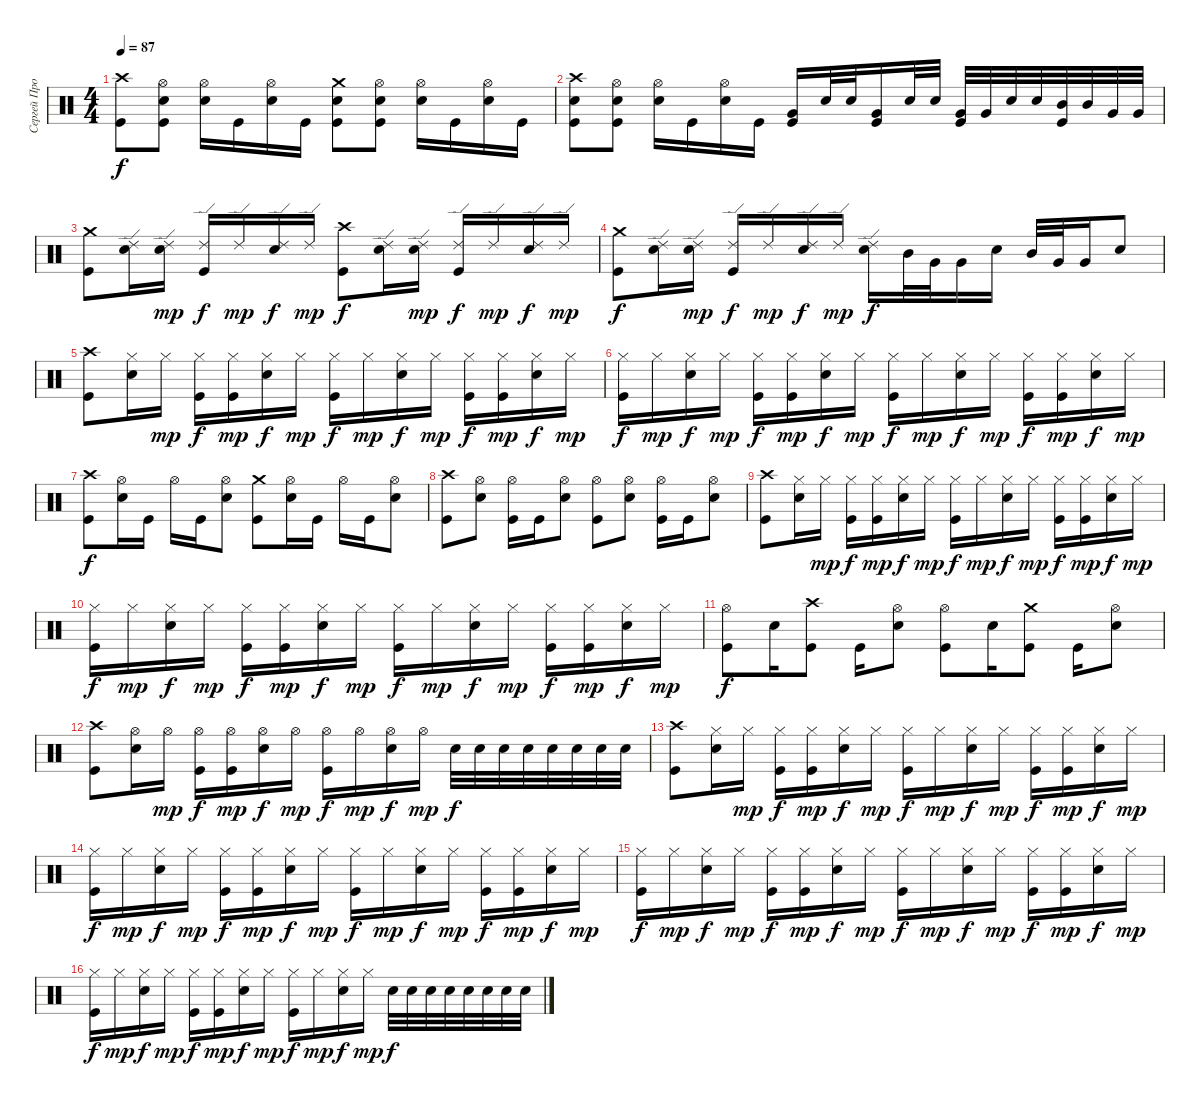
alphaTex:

\track ("Сергей Прокофьев" "Сергей Про") {instrument percussion}
\staff {score}
\articulation defaults
\ts (4 4)
\tempo 87
\clef neutral
\ks c
("Crash high (hit)" "Kick (hit)").8{dy f} ("Hi-Hat (open)" "Electric Snare (hit)" "Kick (hit)").8 ("Hi-Hat (open)" "Electric Snare (hit)").16 "Kick (hit)".16 ("Hi-Hat (open)" "Electric Snare (hit)").16 "Kick (hit)".16 ("Crash medium (hit)" "Electric Snare (hit)" "Kick (hit)").8 ("Hi-Hat (open)" "Electric Snare (hit)" "Kick (hit)").8 ("Hi-Hat (open)" "Electric Snare (hit)").16 "Kick (hit)".16 ("Hi-Hat (open)" "Electric Snare (hit)").16 "Kick (hit)".16 |
("Crash high (hit)" "Electric Snare (hit)" "Kick (hit)").8 ("Hi-Hat (open)" "Electric Snare (hit)" "Kick (hit)").8 ("Hi-Hat (open)" "Electric Snare (hit)").16 "Kick (hit)".16 ("Hi-Hat (open)" "Electric Snare (hit)").16 "Kick (hit)".16 ("Very Low Tom (hit)" "Kick (hit)").16 "Electric Snare (hit)".32 "Electric Snare (hit)".32 ("Very Low Tom (hit)" "Kick (hit)").16 "Electric Snare (hit)".32 "Electric Snare (hit)".32 ("Very Low Tom (hit)" "Kick (hit)").32 "Very Low Tom (hit)".32 "Electric Snare (hit)".32 "Electric Snare (hit)".32 ("Mid Tom (hit)" "Kick (hit)").32 "Mid Tom (hit)".32 "Very Low Tom (hit)".32 "Very Low Tom (hit)".32 |
("Crash medium (hit)" "Kick (hit)").8 ("Ride (edge) 2" "Electric Snare (hit)").16 ("Ride (edge) 2" "Electric Snare (hit)").16{dy mp} ("Ride (edge) 2" "Kick (hit)").16{dy f} "Ride (edge) 2".16{dy mp} ("Ride (edge) 2" "Electric Snare (hit)").16{dy f} "Ride (edge) 2".16{dy mp} ("Crash high (hit)" "Kick (hit)").8{dy f} ("Ride (edge) 2" "Electric Snare (hit)").16 ("Ride (edge) 2" "Electric Snare (hit)").16{dy mp} ("Ride (edge) 2" "Kick (hit)").16{dy f} "Ride (edge) 2".16{dy mp} ("Ride (edge) 2" "Electric Snare (hit)").16{dy f} "Ride (edge) 2".16{dy mp} |
("Crash medium (hit)" "Kick (hit)").8{dy f} ("Ride (edge) 2" "Electric Snare (hit)").16 ("Ride (edge) 2" "Electric Snare (hit)").16{dy mp} ("Ride (edge) 2" "Kick (hit)").16{dy f} "Ride (edge) 2".16{dy mp} ("Ride (edge) 2" "Electric Snare (hit)").16{dy f} "Ride (edge) 2".16{dy mp} ("Ride (edge) 2" "Electric Snare (hit)").16{dy f} "Mid Tom (hit)".32 "Very Low Tom (hit)".32 "Very Low Tom (hit)".16 "Electric Snare (hit)".16 "Mid Tom (hit)".32 "Very Low Tom (hit)".32 "Very Low Tom (hit)".16 "Electric Snare (hit)".8 |
("Crash high (hit)" "Kick (hit)").8 ("Hi-Hat (closed)" "Electric Snare (hit)").16 "Hi-Hat (closed)".16{dy mp} ("Hi-Hat (closed)" "Kick (hit)").16{dy f} ("Hi-Hat (closed)" "Kick (hit)").16{dy mp} ("Hi-Hat (closed)" "Electric Snare (hit)").16{dy f} "Hi-Hat (closed)".16{dy mp} ("Hi-Hat (closed)" "Kick (hit)").16{dy f} "Hi-Hat (closed)".16{dy mp} ("Hi-Hat (closed)" "Electric Snare (hit)").16{dy f} "Hi-Hat (closed)".16{dy mp} ("Hi-Hat (closed)" "Kick (hit)").16{dy f} ("Hi-Hat (closed)" "Kick (hit)").16{dy mp} ("Hi-Hat (closed)" "Electric Snare (hit)").16{dy f} "Hi-Hat (closed)".16{dy mp} |
("Hi-Hat (closed)" "Kick (hit)").16{dy f} "Hi-Hat (closed)".16{dy mp} ("Hi-Hat (closed)" "Electric Snare (hit)").16{dy f} "Hi-Hat (closed)".16{dy mp} ("Hi-Hat (closed)" "Kick (hit)").16{dy f} ("Hi-Hat (closed)" "Kick (hit)").16{dy mp} ("Hi-Hat (closed)" "Electric Snare (hit)").16{dy f} "Hi-Hat (closed)".16{dy mp} ("Hi-Hat (closed)" "Kick (hit)").16{dy f} "Hi-Hat (closed)".16{dy mp} ("Hi-Hat (closed)" "Electric Snare (hit)").16{dy f} "Hi-Hat (closed)".16{dy mp} ("Hi-Hat (closed)" "Kick (hit)").16{dy f} ("Hi-Hat (closed)" "Kick (hit)").16{dy mp} ("Hi-Hat (closed)" "Electric Snare (hit)").16{dy f} "Hi-Hat (closed)".16{dy mp} |
("Crash high (hit)" "Kick (hit)").8{dy f} ("Hi-Hat (open)" "Electric Snare (hit)").16 "Kick (hit)".16 "Hi-Hat (open)".16 "Kick (hit)".16 ("Hi-Hat (open)" "Electric Snare (hit)").8 ("Crash medium (hit)" "Kick (hit)").8 ("Hi-Hat (open)" "Electric Snare (hit)").16 "Kick (hit)".16 "Hi-Hat (open)".16 "Kick (hit)".16 ("Hi-Hat (open)" "Electric Snare (hit)").8 |
("Crash high (hit)" "Kick (hit)").8 ("Hi-Hat (open)" "Electric Snare (hit)").8 ("Hi-Hat (open)" "Kick (hit)").16 "Kick (hit)".16 ("Hi-Hat (open)" "Electric Snare (hit)").8 ("Hi-Hat (open)" "Kick (hit)").8 ("Hi-Hat (open)" "Electric Snare (hit)").8 ("Hi-Hat (open)" "Kick (hit)").16 "Kick (hit)".16 ("Hi-Hat (open)" "Electric Snare (hit)").8 |
("Crash high (hit)" "Kick (hit)").8 ("Hi-Hat (closed)" "Electric Snare (hit)").16 "Hi-Hat (closed)".16{dy mp} ("Hi-Hat (closed)" "Kick (hit)").16{dy f} ("Hi-Hat (closed)" "Kick (hit)").16{dy mp} ("Hi-Hat (closed)" "Electric Snare (hit)").16{dy f} "Hi-Hat (closed)".16{dy mp} ("Hi-Hat (closed)" "Kick (hit)").16{dy f} "Hi-Hat (closed)".16{dy mp} ("Hi-Hat (closed)" "Electric Snare (hit)").16{dy f} "Hi-Hat (closed)".16{dy mp} ("Hi-Hat (closed)" "Kick (hit)").16{dy f} ("Hi-Hat (closed)" "Kick (hit)").16{dy mp} ("Hi-Hat (closed)" "Electric Snare (hit)").16{dy f} "Hi-Hat (closed)".16{dy mp} |
("Hi-Hat (closed)" "Kick (hit)").16{dy f} "Hi-Hat (closed)".16{dy mp} ("Hi-Hat (closed)" "Electric Snare (hit)").16{dy f} "Hi-Hat (closed)".16{dy mp} ("Hi-Hat (closed)" "Kick (hit)").16{dy f} ("Hi-Hat (closed)" "Kick (hit)").16{dy mp} ("Hi-Hat (closed)" "Electric Snare (hit)").16{dy f} "Hi-Hat (closed)".16{dy mp} ("Hi-Hat (closed)" "Kick (hit)").16{dy f} "Hi-Hat (closed)".16{dy mp} ("Hi-Hat (closed)" "Electric Snare (hit)").16{dy f} "Hi-Hat (closed)".16{dy mp} ("Hi-Hat (closed)" "Kick (hit)").16{dy f} ("Hi-Hat (closed)" "Kick (hit)").16{dy mp} ("Hi-Hat (closed)" "Electric Snare (hit)").16{dy f} "Hi-Hat (closed)".16{dy mp} |
("Hi-Hat (open)" "Kick (hit)").8{dy f} "Electric Snare (hit)".16 ("Crash high (hit)" "Kick (hit)").8 "Kick (hit)".16 ("Hi-Hat (open)" "Electric Snare (hit)").8 ("Hi-Hat (open)" "Kick (hit)").8 "Electric Snare (hit)".16 ("Crash medium (hit)" "Kick (hit)").8 "Kick (hit)".16 ("Hi-Hat (open)" "Electric Snare (hit)").8 |
("Crash high (hit)" "Kick (hit)").8 ("Hi-Hat (open)" "Electric Snare (hit)").16 "Hi-Hat (open)".16{dy mp} ("Hi-Hat (open)" "Kick (hit)").16{dy f} ("Hi-Hat (open)" "Kick (hit)").16{dy mp} ("Hi-Hat (open)" "Electric Snare (hit)").16{dy f} "Hi-Hat (open)".16{dy mp} ("Hi-Hat (open)" "Kick (hit)").16{dy f} "Hi-Hat (open)".16{dy mp} ("Hi-Hat (open)" "Electric Snare (hit)").16{dy f} "Hi-Hat (open)".16{dy mp} "Electric Snare (hit)".32{dy f} "Electric Snare (hit)".32 "Electric Snare (hit)".32 "Electric Snare (hit)".32 "Electric Snare (hit)".32 "Electric Snare (hit)".32 "Electric Snare (hit)".32 "Electric Snare (hit)".32 |
("Crash high (hit)" "Kick (hit)").8 ("Hi-Hat (closed)" "Electric Snare (hit)").16 "Hi-Hat (closed)".16{dy mp} ("Hi-Hat (closed)" "Kick (hit)").16{dy f} ("Hi-Hat (closed)" "Kick (hit)").16{dy mp} ("Hi-Hat (closed)" "Electric Snare (hit)").16{dy f} "Hi-Hat (closed)".16{dy mp} ("Hi-Hat (closed)" "Kick (hit)").16{dy f} "Hi-Hat (closed)".16{dy mp} ("Hi-Hat (closed)" "Electric Snare (hit)").16{dy f} "Hi-Hat (closed)".16{dy mp} ("Hi-Hat (closed)" "Kick (hit)").16{dy f} ("Hi-Hat (closed)" "Kick (hit)").16{dy mp} ("Hi-Hat (closed)" "Electric Snare (hit)").16{dy f} "Hi-Hat (closed)".16{dy mp} |
("Hi-Hat (closed)" "Kick (hit)").16{dy f} "Hi-Hat (closed)".16{dy mp} ("Hi-Hat (closed)" "Electric Snare (hit)").16{dy f} "Hi-Hat (closed)".16{dy mp} ("Hi-Hat (closed)" "Kick (hit)").16{dy f} ("Hi-Hat (closed)" "Kick (hit)").16{dy mp} ("Hi-Hat (closed)" "Electric Snare (hit)").16{dy f} "Hi-Hat (closed)".16{dy mp} ("Hi-Hat (closed)" "Kick (hit)").16{dy f} "Hi-Hat (closed)".16{dy mp} ("Hi-Hat (closed)" "Electric Snare (hit)").16{dy f} "Hi-Hat (closed)".16{dy mp} ("Hi-Hat (closed)" "Kick (hit)").16{dy f} ("Hi-Hat (closed)" "Kick (hit)").16{dy mp} ("Hi-Hat (closed)" "Electric Snare (hit)").16{dy f} "Hi-Hat (closed)".16{dy mp} |
("Hi-Hat (closed)" "Kick (hit)").16{dy f} "Hi-Hat (closed)".16{dy mp} ("Hi-Hat (closed)" "Electric Snare (hit)").16{dy f} "Hi-Hat (closed)".16{dy mp} ("Hi-Hat (closed)" "Kick (hit)").16{dy f} ("Hi-Hat (closed)" "Kick (hit)").16{dy mp} ("Hi-Hat (closed)" "Electric Snare (hit)").16{dy f} "Hi-Hat (closed)".16{dy mp} ("Hi-Hat (closed)" "Kick (hit)").16{dy f} "Hi-Hat (closed)".16{dy mp} ("Hi-Hat (closed)" "Electric Snare (hit)").16{dy f} "Hi-Hat (closed)".16{dy mp} ("Hi-Hat (closed)" "Kick (hit)").16{dy f} ("Hi-Hat (closed)" "Kick (hit)").16{dy mp} ("Hi-Hat (closed)" "Electric Snare (hit)").16{dy f} "Hi-Hat (closed)".16{dy mp} |
("Hi-Hat (closed)" "Kick (hit)").16{dy f} "Hi-Hat (closed)".16{dy mp} ("Hi-Hat (closed)" "Electric Snare (hit)").16{dy f} "Hi-Hat (closed)".16{dy mp} ("Hi-Hat (closed)" "Kick (hit)").16{dy f} ("Hi-Hat (closed)" "Kick (hit)").16{dy mp} ("Hi-Hat (closed)" "Electric Snare (hit)").16{dy f} "Hi-Hat (closed)".16{dy mp} ("Hi-Hat (closed)" "Kick (hit)").16{dy f} "Hi-Hat (closed)".16{dy mp} ("Hi-Hat (closed)" "Electric Snare (hit)").16{dy f} "Hi-Hat (closed)".16{dy mp} "Electric Snare (hit)".32{dy f} "Electric Snare (hit)".32 "Electric Snare (hit)".32 "Electric Snare (hit)".32 "Electric Snare (hit)".32 "Electric Snare (hit)".32 "Electric Snare (hit)".32 "Electric Snare (hit)".32
